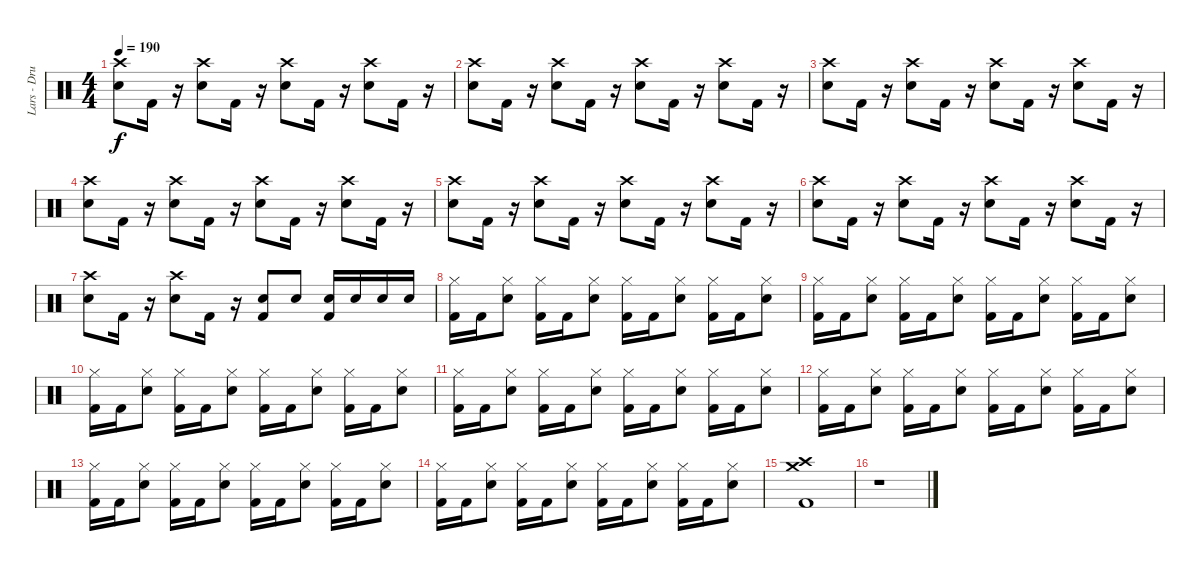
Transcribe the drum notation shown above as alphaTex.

\track ("Lars - Drums" "Lars - Dru") {instrument percussion}
\staff {score}
\articulation defaults
\ts (4 4)
\tempo 190
\clef neutral
\ks c
("Snare (hit) 2" "Crash high (hit)").8{dy f} "Kick (hit) 2".16 r.16 ("Snare (hit) 2" "Crash high (hit)").8 "Kick (hit) 2".16 r.16 ("Snare (hit) 2" "Crash high (hit)").8 "Kick (hit) 2".16 r.16 ("Snare (hit) 2" "Crash high (hit)").8 "Kick (hit) 2".16 r.16 |
("Snare (hit) 2" "Crash high (hit)").8 "Kick (hit) 2".16 r.16 ("Snare (hit) 2" "Crash high (hit)").8 "Kick (hit) 2".16 r.16 ("Snare (hit) 2" "Crash high (hit)").8 "Kick (hit) 2".16 r.16 ("Snare (hit) 2" "Crash high (hit)").8 "Kick (hit) 2".16 r.16 |
("Snare (hit) 2" "Crash high (hit)").8 "Kick (hit) 2".16 r.16 ("Snare (hit) 2" "Crash high (hit)").8 "Kick (hit) 2".16 r.16 ("Snare (hit) 2" "Crash high (hit)").8 "Kick (hit) 2".16 r.16 ("Snare (hit) 2" "Crash high (hit)").8 "Kick (hit) 2".16 r.16 |
("Snare (hit) 2" "Crash high (hit)").8 "Kick (hit) 2".16 r.16 ("Snare (hit) 2" "Crash high (hit)").8 "Kick (hit) 2".16 r.16 ("Snare (hit) 2" "Crash high (hit)").8 "Kick (hit) 2".16 r.16 ("Snare (hit) 2" "Crash high (hit)").8 "Kick (hit) 2".16 r.16 |
("Snare (hit) 2" "Crash high (hit)").8 "Kick (hit) 2".16 r.16 ("Snare (hit) 2" "Crash high (hit)").8 "Kick (hit) 2".16 r.16 ("Snare (hit) 2" "Crash high (hit)").8 "Kick (hit) 2".16 r.16 ("Snare (hit) 2" "Crash high (hit)").8 "Kick (hit) 2".16 r.16 |
("Snare (hit) 2" "Crash high (hit)").8 "Kick (hit) 2".16 r.16 ("Snare (hit) 2" "Crash high (hit)").8 "Kick (hit) 2".16 r.16 ("Snare (hit) 2" "Crash high (hit)").8 "Kick (hit) 2".16 r.16 ("Snare (hit) 2" "Crash high (hit)").8 "Kick (hit) 2".16 r.16 |
("Snare (hit) 2" "Crash high (hit)").8 "Kick (hit) 2".16 r.16 ("Snare (hit) 2" "Crash high (hit)").8 "Kick (hit) 2".16 r.16 ("Snare (hit) 2" "Kick (hit) 2").8 "Snare (hit) 2".8 ("Snare (hit) 2" "Kick (hit) 2").16 "Snare (hit) 2".16 "Snare (hit) 2".16 "Snare (hit) 2".16 |
("Kick (hit) 2" "Hi-Hat (closed)").16 "Kick (hit) 2".16 ("Snare (hit) 2" "Hi-Hat (closed)").8 ("Kick (hit) 2" "Hi-Hat (closed)").16 "Kick (hit) 2".16 ("Snare (hit) 2" "Hi-Hat (closed)").8 ("Kick (hit) 2" "Hi-Hat (closed)").16 "Kick (hit) 2".16 ("Snare (hit) 2" "Hi-Hat (closed)").8 ("Kick (hit) 2" "Hi-Hat (closed)").16 "Kick (hit) 2".16 ("Snare (hit) 2" "Hi-Hat (closed)").8 |
("Kick (hit) 2" "Hi-Hat (closed)").16 "Kick (hit) 2".16 ("Snare (hit) 2" "Hi-Hat (closed)").8 ("Kick (hit) 2" "Hi-Hat (closed)").16 "Kick (hit) 2".16 ("Snare (hit) 2" "Hi-Hat (closed)").8 ("Kick (hit) 2" "Hi-Hat (closed)").16 "Kick (hit) 2".16 ("Snare (hit) 2" "Hi-Hat (closed)").8 ("Kick (hit) 2" "Hi-Hat (closed)").16 "Kick (hit) 2".16 ("Snare (hit) 2" "Hi-Hat (closed)").8 |
("Kick (hit) 2" "Hi-Hat (closed)").16 "Kick (hit) 2".16 ("Snare (hit) 2" "Hi-Hat (closed)").8 ("Kick (hit) 2" "Hi-Hat (closed)").16 "Kick (hit) 2".16 ("Snare (hit) 2" "Hi-Hat (closed)").8 ("Kick (hit) 2" "Hi-Hat (closed)").16 "Kick (hit) 2".16 ("Snare (hit) 2" "Hi-Hat (closed)").8 ("Kick (hit) 2" "Hi-Hat (closed)").16 "Kick (hit) 2".16 ("Snare (hit) 2" "Hi-Hat (closed)").8 |
("Kick (hit) 2" "Hi-Hat (closed)").16 "Kick (hit) 2".16 ("Snare (hit) 2" "Hi-Hat (closed)").8 ("Kick (hit) 2" "Hi-Hat (closed)").16 "Kick (hit) 2".16 ("Snare (hit) 2" "Hi-Hat (closed)").8 ("Kick (hit) 2" "Hi-Hat (closed)").16 "Kick (hit) 2".16 ("Snare (hit) 2" "Hi-Hat (closed)").8 ("Kick (hit) 2" "Hi-Hat (closed)").16 "Kick (hit) 2".16 ("Snare (hit) 2" "Hi-Hat (closed)").8 |
("Kick (hit) 2" "Hi-Hat (closed)").16 "Kick (hit) 2".16 ("Snare (hit) 2" "Hi-Hat (closed)").8 ("Kick (hit) 2" "Hi-Hat (closed)").16 "Kick (hit) 2".16 ("Snare (hit) 2" "Hi-Hat (closed)").8 ("Kick (hit) 2" "Hi-Hat (closed)").16 "Kick (hit) 2".16 ("Snare (hit) 2" "Hi-Hat (closed)").8 ("Kick (hit) 2" "Hi-Hat (closed)").16 "Kick (hit) 2".16 ("Snare (hit) 2" "Hi-Hat (closed)").8 |
("Kick (hit) 2" "Hi-Hat (closed)").16 "Kick (hit) 2".16 ("Snare (hit) 2" "Hi-Hat (closed)").8 ("Kick (hit) 2" "Hi-Hat (closed)").16 "Kick (hit) 2".16 ("Snare (hit) 2" "Hi-Hat (closed)").8 ("Kick (hit) 2" "Hi-Hat (closed)").16 "Kick (hit) 2".16 ("Snare (hit) 2" "Hi-Hat (closed)").8 ("Kick (hit) 2" "Hi-Hat (closed)").16 "Kick (hit) 2".16 ("Snare (hit) 2" "Hi-Hat (closed)").8 |
("Kick (hit) 2" "Hi-Hat (closed)").16 "Kick (hit) 2".16 ("Snare (hit) 2" "Hi-Hat (closed)").8 ("Kick (hit) 2" "Hi-Hat (closed)").16 "Kick (hit) 2".16 ("Snare (hit) 2" "Hi-Hat (closed)").8 ("Kick (hit) 2" "Hi-Hat (closed)").16 "Kick (hit) 2".16 ("Snare (hit) 2" "Hi-Hat (closed)").8 ("Kick (hit) 2" "Hi-Hat (closed)").16 "Kick (hit) 2".16 ("Snare (hit) 2" "Hi-Hat (closed)").8 |
("Kick (hit) 2" "Crash high (hit)" "Crash medium (hit)").1 |
r.1
